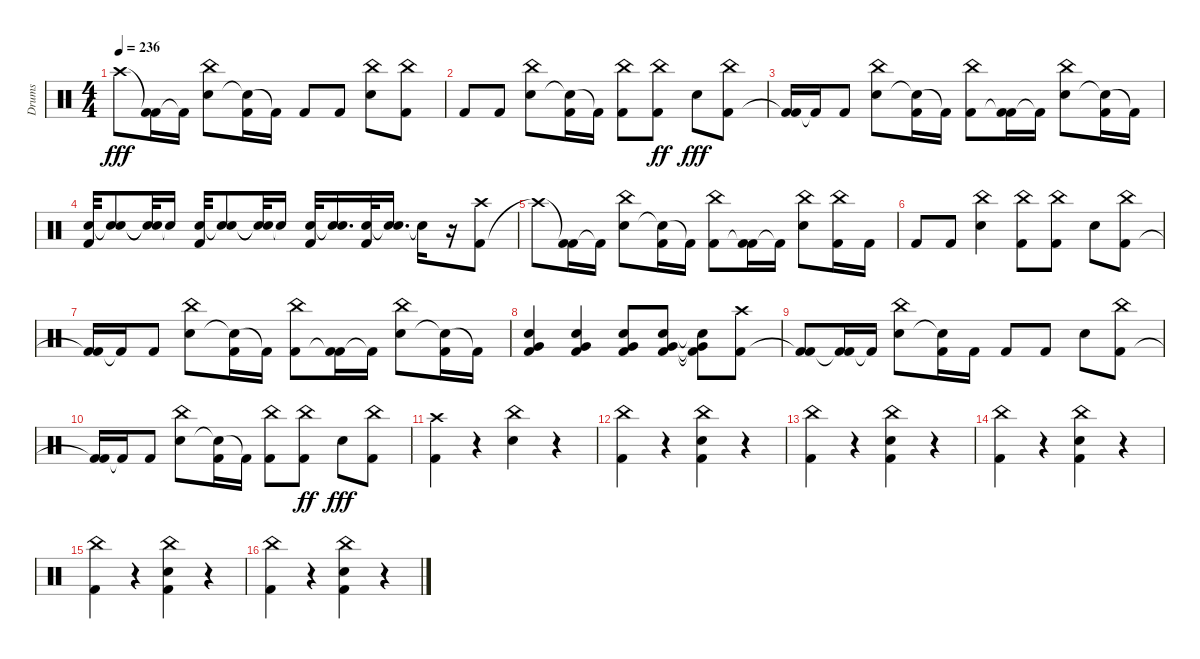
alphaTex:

\track ("Drums" "Drums") {instrument percussion}
\staff {score}
\articulation defaults
\ts (4 4)
\tempo 236
\clef neutral
\ks c "Crash high (hit)"{t}.8{dy fff}
("Kick (hit) 2"{t} "Kick (hit) 2").16 "Kick (hit) 2"{t}.16 ("Snare (hit) 2" "China (hit)").8 ("Snare (hit) 2"{t} "Kick (hit) 2").16 "Kick (hit) 2"{t}.16 "Kick (hit) 2".8 "Kick (hit) 2".8 ("Snare (hit) 2" "China (hit)").8 ("Kick (hit) 2" "China (hit)").8 |
"Kick (hit) 2".8 "Kick (hit) 2".8 ("Snare (hit) 2" "China (hit)").8 ("Snare (hit) 2"{t} "Kick (hit) 2").16 "Kick (hit) 2"{t}.16 ("Kick (hit) 2" "China (hit)").8 ("China (hit)" "Kick (hit) 2").8{dy ff} "Snare (hit) 2".8{dy fff} ("Kick (hit) 2" "China (hit)").8 |
("Kick (hit) 2"{t} "Kick (hit) 2").16 "Kick (hit) 2"{t}.16 "Kick (hit) 2".8 ("Snare (hit) 2" "China (hit)").8 ("Snare (hit) 2"{t} "Kick (hit) 2").16 "Kick (hit) 2"{t}.16 ("Kick (hit) 2" "China (hit)").8 ("Kick (hit) 2"{t} "Kick (hit) 2").16 "Kick (hit) 2"{t}.16 ("Snare (hit) 2" "China (hit)").8 ("Snare (hit) 2"{t} "Kick (hit) 2").16 "Kick (hit) 2"{t}.16 |
("Snare (hit) 2" "Kick (hit) 2").32 ("Snare (hit) 2"{t} "Snare (hit) 2").8 ("Snare (hit) 2"{t} "Snare (hit) 2"{t}).32 "Snare (hit) 2"{t}.16 ("Snare (hit) 2" "Kick (hit) 2").32 ("Snare (hit) 2"{t} "Snare (hit) 2").8 ("Snare (hit) 2"{t} "Snare (hit) 2"{t}).32 "Snare (hit) 2"{t}.16 ("Snare (hit) 2" "Kick (hit) 2").32 ("Snare (hit) 2"{t} "Snare (hit) 2").16{d} ("Snare (hit) 2" "Kick (hit) 2").32 ("Snare (hit) 2"{t} "Snare (hit) 2").16{d} "Snare (hit) 2"{t}.16 r.16 ("Kick (hit) 2" "Crash high (hit)").8 |
"Crash high (hit)"{t}.8 ("Kick (hit) 2"{t} "Kick (hit) 2").16 "Kick (hit) 2"{t}.16 ("Snare (hit) 2" "China (hit)").8 ("Snare (hit) 2"{t} "Kick (hit) 2").16 "Kick (hit) 2"{t}.16 ("Kick (hit) 2" "China (hit)").8 ("Kick (hit) 2"{t} "Kick (hit) 2").16 "Kick (hit) 2"{t}.16 ("Snare (hit) 2" "China (hit)").8 ("Kick (hit) 2" "China (hit)").16 "Kick (hit) 2".16 |
"Kick (hit) 2".8 "Kick (hit) 2".8 ("Snare (hit) 2" "China (hit)").4 ("Kick (hit) 2" "China (hit)").8 ("China (hit)" "Kick (hit) 2").8 "Snare (hit) 2".8 ("Kick (hit) 2" "China (hit)").8 |
("Kick (hit) 2"{t} "Kick (hit) 2").16 "Kick (hit) 2"{t}.16 "Kick (hit) 2".8 ("Snare (hit) 2" "China (hit)").8 ("Snare (hit) 2"{t} "Kick (hit) 2").16 "Kick (hit) 2"{t}.16 ("Kick (hit) 2" "China (hit)").8 ("Kick (hit) 2"{t} "Kick (hit) 2").16 "Kick (hit) 2"{t}.16 ("Snare (hit) 2" "China (hit)").8 ("Snare (hit) 2"{t} "Kick (hit) 2").16 "Kick (hit) 2"{t}.16 |
("Snare (hit) 2" "Kick (hit) 2" "Very Low Tom (hit)").4 ("Kick (hit) 2" "Snare (hit) 2" "Very Low Tom (hit)").4 ("Kick (hit) 2" "Snare (hit) 2" "Very Low Tom (hit)").8 ("Snare (hit) 2" "Kick (hit) 2" "Very Low Tom (hit)").8 ("Snare (hit) 2"{t} "Kick (hit) 2"{t} "Very Low Tom (hit)"{t}).8 ("Kick (hit) 2" "Crash high (hit)").8 |
("Kick (hit) 2"{t} "Kick (hit) 2").8 ("Kick (hit) 2"{t} "Kick (hit) 2").16 "Kick (hit) 2"{t}.16 ("Snare (hit) 2" "China (hit)").8 ("Snare (hit) 2"{t} "Kick (hit) 2").16 "Kick (hit) 2".16 "Kick (hit) 2".8 "Kick (hit) 2".8 "Snare (hit) 2".8 ("Kick (hit) 2" "China (hit)").8 |
("Kick (hit) 2"{t} "Kick (hit) 2").16 "Kick (hit) 2"{t}.16 "Kick (hit) 2".8 ("Snare (hit) 2" "China (hit)").8 ("Snare (hit) 2"{t} "Kick (hit) 2").16 "Kick (hit) 2"{t}.16 ("Kick (hit) 2" "China (hit)").8 ("China (hit)" "Kick (hit) 2").8{dy ff} "Snare (hit) 2".8{dy fff} ("Kick (hit) 2" "China (hit)").8 |
("Kick (hit) 2" "Crash high (hit)").4 r.4 ("Snare (hit) 2" "China (hit)").4 r.4 |
("Kick (hit) 2" "China (hit)").4 r.4 ("Kick (hit) 2" "Snare (hit) 2" "China (hit)").4 r.4 |
("Kick (hit) 2" "China (hit)").4 r.4 ("Kick (hit) 2" "Snare (hit) 2" "China (hit)").4 r.4 |
("Kick (hit) 2" "China (hit)").4 r.4 ("Snare (hit) 2" "Kick (hit) 2" "China (hit)").4 r.4 |
("Kick (hit) 2" "China (hit)").4 r.4 ("Snare (hit) 2" "Kick (hit) 2" "China (hit)").4 r.4 |
("Kick (hit) 2" "China (hit)").4 r.4 ("Kick (hit) 2" "Snare (hit) 2" "China (hit)").4 r.4
